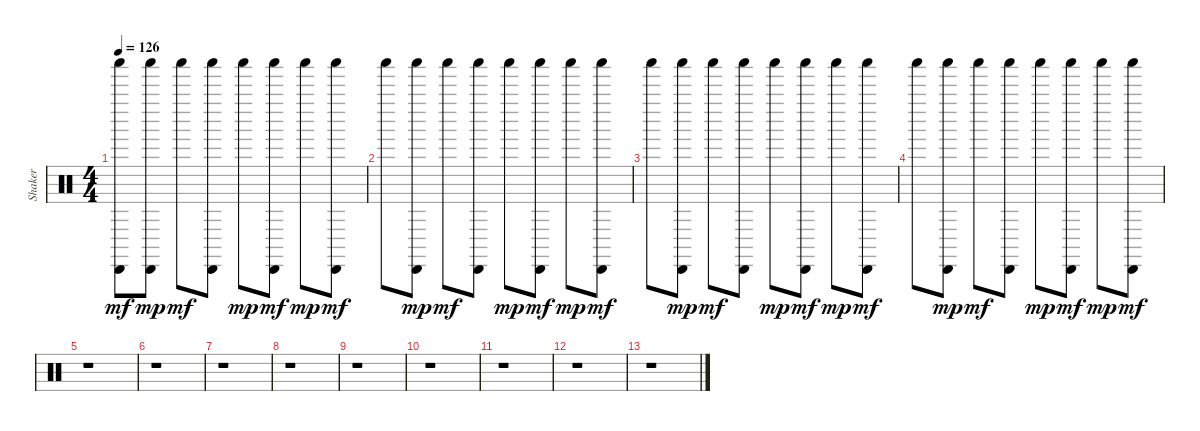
\track ("Shaker" "Shaker") {instrument percussion}
\staff {score}
\articulation defaults
\ts (4 4)
\tempo 126
\clef neutral
\ks c
("Cabasa (hit)" "Shaker (hit)").8{dy mf} ("Cabasa (hit)" "Shaker (hit)").8{dy mp} "Shaker (hit)".8{dy mf} ("Cabasa (hit)" "Shaker (hit)").8 "Shaker (hit)".8{dy mp} ("Cabasa (hit)" "Shaker (hit)").8{dy mf} "Shaker (hit)".8{dy mp} ("Cabasa (hit)" "Shaker (hit)").8{dy mf} |
"Shaker (hit)".8 ("Cabasa (hit)" "Shaker (hit)").8{dy mp} "Shaker (hit)".8{dy mf} ("Cabasa (hit)" "Shaker (hit)").8 "Shaker (hit)".8{dy mp} ("Cabasa (hit)" "Shaker (hit)").8{dy mf} "Shaker (hit)".8{dy mp} ("Cabasa (hit)" "Shaker (hit)").8{dy mf} |
"Shaker (hit)".8 ("Cabasa (hit)" "Shaker (hit)").8{dy mp} "Shaker (hit)".8{dy mf} ("Cabasa (hit)" "Shaker (hit)").8 "Shaker (hit)".8{dy mp} ("Cabasa (hit)" "Shaker (hit)").8{dy mf} "Shaker (hit)".8{dy mp} ("Cabasa (hit)" "Shaker (hit)").8{dy mf} |
"Shaker (hit)".8 ("Cabasa (hit)" "Shaker (hit)").8{dy mp} "Shaker (hit)".8{dy mf} ("Cabasa (hit)" "Shaker (hit)").8 "Shaker (hit)".8{dy mp} ("Cabasa (hit)" "Shaker (hit)").8{dy mf} "Shaker (hit)".8{dy mp} ("Cabasa (hit)" "Shaker (hit)").8{dy mf} |
r.1 |
r.1 |
r.1 |
r.1 |
r.1 |
r.1 |
r.1 |
r.1 |
r.1
